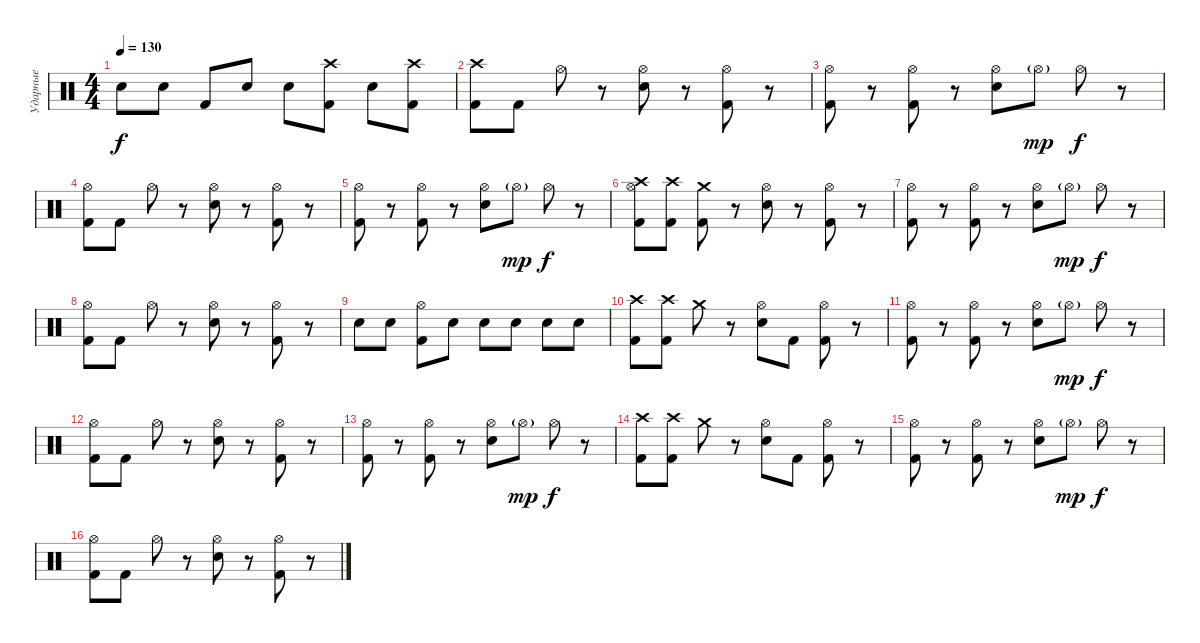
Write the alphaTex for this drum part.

\track ("Ударные" "Ударные") {instrument percussion}
\staff {score}
\articulation defaults
\ts (4 4)
\tempo 130
\clef neutral
\ks c "Snare (hit) 2".8{dy f} "Snare (hit) 2".8 "Kick (hit) 2".8 "Snare (hit) 2".8 "Snare (hit) 2".8
("Crash high (hit)" "Kick (hit) 2").8 "Snare (hit) 2".8 ("Crash high (hit)" "Kick (hit) 2").8 |
("Crash high (hit)" "Kick (hit) 2").8 "Kick (hit) 2".8 "Hi-Hat (open)".8 r.8 ("Hi-Hat (open)" "Snare (hit) 2").8 r.8 ("Hi-Hat (open)" "Kick (hit) 2").8 r.8 |
("Hi-Hat (open)" "Kick (hit) 2").8 r.8 ("Hi-Hat (open)" "Kick (hit) 2").8 r.8 ("Hi-Hat (open)" "Snare (hit) 2").8 "Hi-Hat (open)"{g}.8{dy mp} "Hi-Hat (open)".8{dy f} r.8 |
("Hi-Hat (open)" "Kick (hit) 2").8 "Kick (hit) 2".8 "Hi-Hat (open)".8 r.8 ("Hi-Hat (open)" "Snare (hit) 2").8 r.8 ("Hi-Hat (open)" "Kick (hit) 2").8 r.8 |
("Hi-Hat (open)" "Kick (hit) 2").8 r.8 ("Hi-Hat (open)" "Kick (hit) 2").8 r.8 ("Hi-Hat (open)" "Snare (hit) 2").8 "Hi-Hat (open)"{g}.8{dy mp} "Hi-Hat (open)".8{dy f} r.8 |
("Hi-Hat (open)" "Crash high (hit)" "Kick (hit) 2").8 ("Crash high (hit)" "Kick (hit) 2").8 ("Crash medium (hit)" "Kick (hit) 2").8 r.8 ("Hi-Hat (open)" "Snare (hit) 2").8 r.8 ("Hi-Hat (open)" "Kick (hit) 2").8 r.8 |
("Hi-Hat (open)" "Kick (hit) 2").8 r.8 ("Hi-Hat (open)" "Kick (hit) 2").8 r.8 ("Hi-Hat (open)" "Snare (hit) 2").8 "Hi-Hat (open)"{g}.8{dy mp} "Hi-Hat (open)".8{dy f} r.8 |
("Hi-Hat (open)" "Kick (hit) 2").8 "Kick (hit) 2".8 "Hi-Hat (open)".8 r.8 ("Hi-Hat (open)" "Snare (hit) 2").8 r.8 ("Hi-Hat (open)" "Kick (hit) 2").8 r.8 |
"Snare (hit) 2".8 "Snare (hit) 2".8 ("Hi-Hat (open)" "Kick (hit) 2").8 "Snare (hit) 2".8 "Snare (hit) 2".8 "Snare (hit) 2".8 "Snare (hit) 2".8 "Snare (hit) 2".8 |
("Crash high (hit)" "Kick (hit) 2").8 ("Crash high (hit)" "Kick (hit) 2").8 "Crash medium (hit)".8 r.8 ("Hi-Hat (open)" "Snare (hit) 2").8 "Kick (hit) 2".8 ("Hi-Hat (open)" "Kick (hit) 2").8 r.8 |
("Hi-Hat (open)" "Kick (hit) 2").8 r.8 ("Hi-Hat (open)" "Kick (hit) 2").8 r.8 ("Hi-Hat (open)" "Snare (hit) 2").8 "Hi-Hat (open)"{g}.8{dy mp} "Hi-Hat (open)".8{dy f} r.8 |
("Hi-Hat (open)" "Kick (hit) 2").8 "Kick (hit) 2".8 "Hi-Hat (open)".8 r.8 ("Hi-Hat (open)" "Snare (hit) 2").8 r.8 ("Hi-Hat (open)" "Kick (hit) 2").8 r.8 |
("Hi-Hat (open)" "Kick (hit) 2").8 r.8 ("Hi-Hat (open)" "Kick (hit) 2").8 r.8 ("Hi-Hat (open)" "Snare (hit) 2").8 "Hi-Hat (open)"{g}.8{dy mp} "Hi-Hat (open)".8{dy f} r.8 |
("Crash high (hit)" "Kick (hit) 2").8 ("Crash high (hit)" "Kick (hit) 2").8 "Crash medium (hit)".8 r.8 ("Hi-Hat (open)" "Snare (hit) 2").8 "Kick (hit) 2".8 ("Hi-Hat (open)" "Kick (hit) 2").8 r.8 |
("Hi-Hat (open)" "Kick (hit) 2").8 r.8 ("Hi-Hat (open)" "Kick (hit) 2").8 r.8 ("Hi-Hat (open)" "Snare (hit) 2").8 "Hi-Hat (open)"{g}.8{dy mp} "Hi-Hat (open)".8{dy f} r.8 |
("Hi-Hat (open)" "Kick (hit) 2").8 "Kick (hit) 2".8 "Hi-Hat (open)".8 r.8 ("Hi-Hat (open)" "Snare (hit) 2").8 r.8 ("Hi-Hat (open)" "Kick (hit) 2").8 r.8
